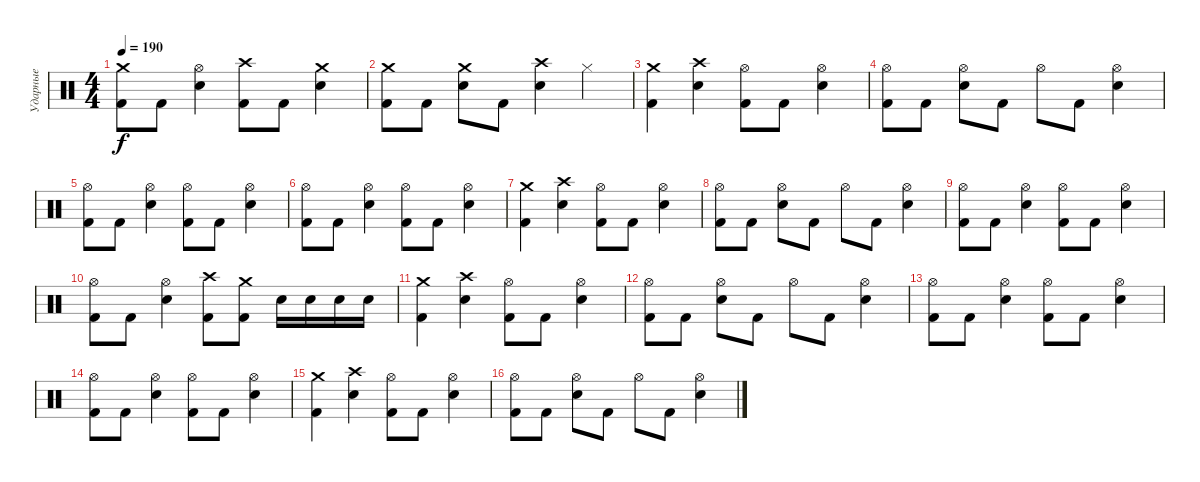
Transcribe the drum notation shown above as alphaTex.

\track ("Ударные" "Ударные") {instrument percussion}
\staff {score}
\articulation defaults
\ts (4 4)
\tempo 190
\clef neutral
\ks c
("Crash medium (hit)" "Kick (hit) 2").8{dy f} "Kick (hit) 2".8 ("Hi-Hat (open)" "Snare (hit) 2").4 ("Crash high (hit)" "Kick (hit) 2").8 "Kick (hit) 2".8 ("Crash medium (hit)" "Snare (hit) 2").4 |
("Crash medium (hit)" "Kick (hit) 2").8 "Kick (hit) 2".8 ("Crash medium (hit)" "Snare (hit) 2").8 "Kick (hit) 2".8 ("Crash high (hit)" "Snare (hit) 2").4 "Hi-Hat (closed)".4 |
("Crash medium (hit)" "Kick (hit) 2").4 ("Crash high (hit)" "Snare (hit) 2").4 ("Hi-Hat (open)" "Kick (hit) 2").8 "Kick (hit) 2".8 ("Hi-Hat (open)" "Snare (hit) 2").4 |
("Hi-Hat (open)" "Kick (hit) 2").8 "Kick (hit) 2".8 ("Hi-Hat (open)" "Snare (hit) 2").8 "Kick (hit) 2".8 "Hi-Hat (open)".8 "Kick (hit) 2".8 ("Hi-Hat (open)" "Snare (hit) 2").4 |
("Hi-Hat (open)" "Kick (hit) 2").8 "Kick (hit) 2".8 ("Hi-Hat (open)" "Snare (hit) 2").4 ("Hi-Hat (open)" "Kick (hit) 2").8 "Kick (hit) 2".8 ("Hi-Hat (open)" "Snare (hit) 2").4 |
("Hi-Hat (open)" "Kick (hit) 2").8 "Kick (hit) 2".8 ("Hi-Hat (open)" "Snare (hit) 2").4 ("Hi-Hat (open)" "Kick (hit) 2").8 "Kick (hit) 2".8 ("Hi-Hat (open)" "Snare (hit) 2").4 |
("Crash medium (hit)" "Kick (hit) 2").4 ("Crash high (hit)" "Snare (hit) 2").4 ("Hi-Hat (open)" "Kick (hit) 2").8 "Kick (hit) 2".8 ("Hi-Hat (open)" "Snare (hit) 2").4 |
("Hi-Hat (open)" "Kick (hit) 2").8 "Kick (hit) 2".8 ("Hi-Hat (open)" "Snare (hit) 2").8 "Kick (hit) 2".8 "Hi-Hat (open)".8 "Kick (hit) 2".8 ("Hi-Hat (open)" "Snare (hit) 2").4 |
("Hi-Hat (open)" "Kick (hit) 2").8 "Kick (hit) 2".8 ("Hi-Hat (open)" "Snare (hit) 2").4 ("Hi-Hat (open)" "Kick (hit) 2").8 "Kick (hit) 2".8 ("Hi-Hat (open)" "Snare (hit) 2").4 |
("Hi-Hat (open)" "Kick (hit) 2").8 "Kick (hit) 2".8 ("Hi-Hat (open)" "Snare (hit) 2").4 ("Crash high (hit)" "Kick (hit) 2").8 ("Crash medium (hit)" "Kick (hit) 2").8 "Snare (hit) 2".16 "Snare (hit) 2".16 "Snare (hit) 2".16 "Snare (hit) 2".16 |
("Crash medium (hit)" "Kick (hit) 2").4 ("Crash high (hit)" "Snare (hit) 2").4 ("Hi-Hat (open)" "Kick (hit) 2").8 "Kick (hit) 2".8 ("Hi-Hat (open)" "Snare (hit) 2").4 |
("Hi-Hat (open)" "Kick (hit) 2").8 "Kick (hit) 2".8 ("Hi-Hat (open)" "Snare (hit) 2").8 "Kick (hit) 2".8 "Hi-Hat (open)".8 "Kick (hit) 2".8 ("Hi-Hat (open)" "Snare (hit) 2").4 |
("Hi-Hat (open)" "Kick (hit) 2").8 "Kick (hit) 2".8 ("Hi-Hat (open)" "Snare (hit) 2").4 ("Hi-Hat (open)" "Kick (hit) 2").8 "Kick (hit) 2".8 ("Hi-Hat (open)" "Snare (hit) 2").4 |
("Hi-Hat (open)" "Kick (hit) 2").8 "Kick (hit) 2".8 ("Hi-Hat (open)" "Snare (hit) 2").4 ("Hi-Hat (open)" "Kick (hit) 2").8 "Kick (hit) 2".8 ("Hi-Hat (open)" "Snare (hit) 2").4 |
("Crash medium (hit)" "Kick (hit) 2").4 ("Crash high (hit)" "Snare (hit) 2").4 ("Hi-Hat (open)" "Kick (hit) 2").8 "Kick (hit) 2".8 ("Hi-Hat (open)" "Snare (hit) 2").4 |
("Hi-Hat (open)" "Kick (hit) 2").8 "Kick (hit) 2".8 ("Hi-Hat (open)" "Snare (hit) 2").8 "Kick (hit) 2".8 "Hi-Hat (open)".8 "Kick (hit) 2".8 ("Hi-Hat (open)" "Snare (hit) 2").4
